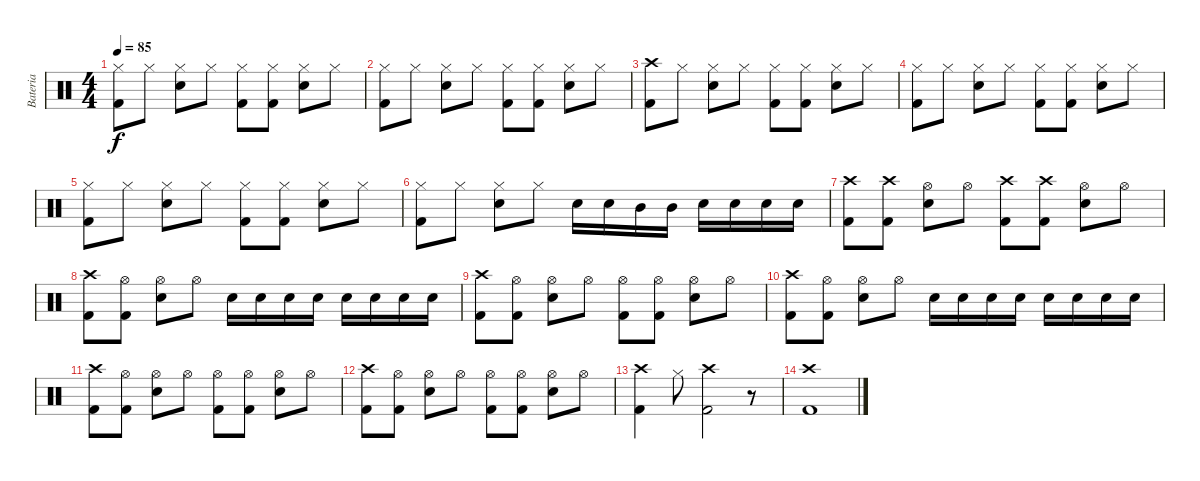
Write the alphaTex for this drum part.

\track ("Bateria" "Bateria") {instrument percussion}
\staff {score}
\articulation defaults
\ts (4 4)
\tempo 85
\clef neutral
\ks c
("Hi-Hat (closed)" "Kick (hit) 2").8{dy f} "Hi-Hat (closed)".8 ("Hi-Hat (closed)" "Electric Snare (hit)").8 "Hi-Hat (closed)".8 ("Hi-Hat (closed)" "Kick (hit) 2").8 ("Hi-Hat (closed)" "Kick (hit) 2").8 ("Hi-Hat (closed)" "Electric Snare (hit)").8 "Hi-Hat (closed)".8 |
("Hi-Hat (closed)" "Kick (hit) 2").8 "Hi-Hat (closed)".8 ("Hi-Hat (closed)" "Electric Snare (hit)").8 "Hi-Hat (closed)".8 ("Hi-Hat (closed)" "Kick (hit) 2").8 ("Hi-Hat (closed)" "Kick (hit) 2").8 ("Hi-Hat (closed)" "Electric Snare (hit)").8 "Hi-Hat (closed)".8 |
("Crash high (hit)" "Kick (hit) 2").8 "Hi-Hat (closed)".8 ("Hi-Hat (closed)" "Electric Snare (hit)").8 "Hi-Hat (closed)".8 ("Hi-Hat (closed)" "Kick (hit) 2").8 ("Hi-Hat (closed)" "Kick (hit) 2").8 ("Hi-Hat (closed)" "Electric Snare (hit)").8 "Hi-Hat (closed)".8 |
("Hi-Hat (closed)" "Kick (hit) 2").8 "Hi-Hat (closed)".8 ("Hi-Hat (closed)" "Electric Snare (hit)").8 "Hi-Hat (closed)".8 ("Hi-Hat (closed)" "Kick (hit) 2").8 ("Hi-Hat (closed)" "Kick (hit) 2").8 ("Hi-Hat (closed)" "Electric Snare (hit)").8 "Hi-Hat (closed)".8 |
("Hi-Hat (closed)" "Kick (hit) 2").8 "Hi-Hat (closed)".8 ("Hi-Hat (closed)" "Electric Snare (hit)").8 "Hi-Hat (closed)".8 ("Hi-Hat (closed)" "Kick (hit) 2").8 ("Hi-Hat (closed)" "Kick (hit) 2").8 ("Hi-Hat (closed)" "Electric Snare (hit)").8 "Hi-Hat (closed)".8 |
("Hi-Hat (closed)" "Kick (hit) 2").8 "Hi-Hat (closed)".8 ("Hi-Hat (closed)" "Electric Snare (hit)").8 "Hi-Hat (closed)".8 "Electric Snare (hit)".16 "Electric Snare (hit)".16 "Mid Tom (hit)".16 "Mid Tom (hit)".16 "Electric Snare (hit)".16 "Electric Snare (hit)".16 "Electric Snare (hit)".16 "Electric Snare (hit)".16 |
("Crash high (hit)" "Kick (hit) 2").8 ("Crash high (hit)" "Kick (hit) 2").8 ("Hi-Hat (open)" "Electric Snare (hit)").8 "Hi-Hat (open)".8 ("Crash high (hit)" "Kick (hit) 2").8 ("Crash high (hit)" "Kick (hit) 2").8 ("Hi-Hat (open)" "Electric Snare (hit)").8 "Hi-Hat (open)".8 |
("Crash high (hit)" "Kick (hit) 2").8 ("Hi-Hat (open)" "Kick (hit) 2").8 ("Hi-Hat (open)" "Electric Snare (hit)").8 "Hi-Hat (open)".8 "Electric Snare (hit)".16 "Electric Snare (hit)".16 "Electric Snare (hit)".16 "Electric Snare (hit)".16 "Electric Snare (hit)".16 "Electric Snare (hit)".16 "Electric Snare (hit)".16 "Electric Snare (hit)".16 |
("Crash high (hit)" "Kick (hit) 2").8 ("Hi-Hat (open)" "Kick (hit) 2").8 ("Hi-Hat (open)" "Electric Snare (hit)").8 "Hi-Hat (open)".8 ("Hi-Hat (open)" "Kick (hit) 2").8 ("Hi-Hat (open)" "Kick (hit) 2").8 ("Hi-Hat (open)" "Electric Snare (hit)").8 "Hi-Hat (open)".8 |
("Crash high (hit)" "Kick (hit) 2").8 ("Hi-Hat (open)" "Kick (hit) 2").8 ("Hi-Hat (open)" "Electric Snare (hit)").8 "Hi-Hat (open)".8 "Electric Snare (hit)".16 "Electric Snare (hit)".16 "Electric Snare (hit)".16 "Electric Snare (hit)".16 "Electric Snare (hit)".16 "Electric Snare (hit)".16 "Electric Snare (hit)".16 "Electric Snare (hit)".16 |
("Crash high (hit)" "Kick (hit) 2").8 ("Hi-Hat (open)" "Kick (hit) 2").8 ("Hi-Hat (open)" "Electric Snare (hit)").8 "Hi-Hat (open)".8 ("Hi-Hat (open)" "Kick (hit) 2").8 ("Hi-Hat (open)" "Kick (hit) 2").8 ("Hi-Hat (open)" "Electric Snare (hit)").8 "Hi-Hat (open)".8 |
("Crash high (hit)" "Kick (hit) 2").8 ("Hi-Hat (open)" "Kick (hit) 2").8 ("Hi-Hat (open)" "Electric Snare (hit)").8 "Hi-Hat (open)".8 ("Hi-Hat (open)" "Kick (hit) 2").8 ("Hi-Hat (open)" "Kick (hit) 2").8 ("Hi-Hat (open)" "Electric Snare (hit)").8 "Hi-Hat (open)".8 |
("Crash high (hit)" "Kick (hit) 2").4 "Hi-Hat (closed)".8 ("Crash high (hit)" "Kick (hit) 2").2 r.8 |
("Crash high (hit)" "Kick (hit) 2").1
